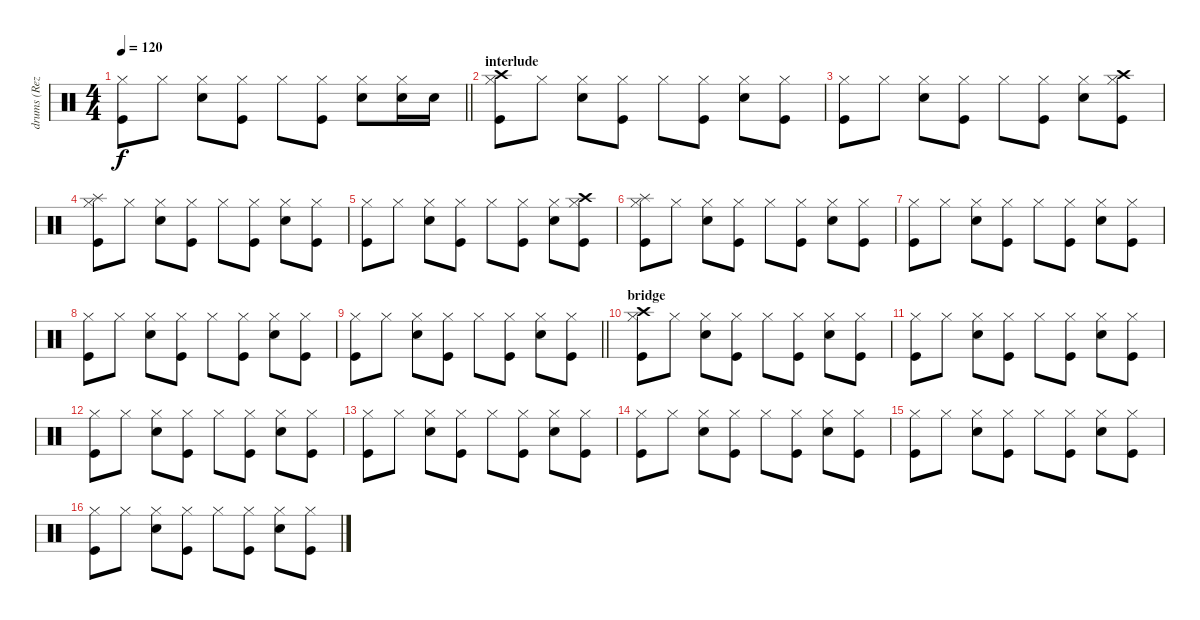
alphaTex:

\track ("drums (Reza)" "drums (Rez") {instrument percussion}
\staff {score}
\articulation defaults
\ts (4 4)
\tempo 120
\clef neutral
\barLineRight lightlight
\ks c
("Hi-Hat (closed)" "Kick (hit)").8{dy f} "Hi-Hat (closed)".8 ("Hi-Hat (closed)" "Snare (hit) 2").8 ("Hi-Hat (closed)" "Kick (hit)").8 "Hi-Hat (closed)".8 ("Hi-Hat (closed)" "Kick (hit)").8 ("Hi-Hat (closed)" "Snare (hit) 2").8 ("Hi-Hat (closed)" "Snare (hit) 2").16 "Snare (hit) 2".16 |
\section ("" "interlude")
("Hi-Hat (closed)" "Kick (hit)" "Crash high (hit)").8 "Hi-Hat (closed)".8 ("Hi-Hat (closed)" "Snare (hit) 2").8 ("Hi-Hat (closed)" "Kick (hit)").8 "Hi-Hat (closed)".8 ("Hi-Hat (closed)" "Kick (hit)").8 ("Hi-Hat (closed)" "Snare (hit) 2").8 ("Hi-Hat (closed)" "Kick (hit)").8 |
("Hi-Hat (closed)" "Kick (hit)").8 "Hi-Hat (closed)".8 ("Hi-Hat (closed)" "Snare (hit) 2").8 ("Hi-Hat (closed)" "Kick (hit)").8 "Hi-Hat (closed)".8 ("Hi-Hat (closed)" "Kick (hit)").8 ("Hi-Hat (closed)" "Snare (hit) 2").8 ("Hi-Hat (closed)" "Kick (hit)" "Crash high (hit)").8 |
("Hi-Hat (closed)" "Kick (hit)" "Splash (hit)").8 "Hi-Hat (closed)".8 ("Hi-Hat (closed)" "Snare (hit) 2").8 ("Hi-Hat (closed)" "Kick (hit)").8 "Hi-Hat (closed)".8 ("Hi-Hat (closed)" "Kick (hit)").8 ("Hi-Hat (closed)" "Snare (hit) 2").8 ("Hi-Hat (closed)" "Kick (hit)").8 |
("Hi-Hat (closed)" "Kick (hit)").8 "Hi-Hat (closed)".8 ("Hi-Hat (closed)" "Snare (hit) 2").8 ("Hi-Hat (closed)" "Kick (hit)").8 "Hi-Hat (closed)".8 ("Hi-Hat (closed)" "Kick (hit)").8 ("Hi-Hat (closed)" "Snare (hit) 2").8 ("Hi-Hat (closed)" "Kick (hit)" "Crash high (hit)").8 |
("Hi-Hat (closed)" "Kick (hit)" "Splash (hit)").8 "Hi-Hat (closed)".8 ("Hi-Hat (closed)" "Snare (hit) 2").8 ("Hi-Hat (closed)" "Kick (hit)").8 "Hi-Hat (closed)".8 ("Hi-Hat (closed)" "Kick (hit)").8 ("Hi-Hat (closed)" "Snare (hit) 2").8 ("Hi-Hat (closed)" "Kick (hit)").8 |
("Hi-Hat (closed)" "Kick (hit)").8 "Hi-Hat (closed)".8 ("Hi-Hat (closed)" "Snare (hit) 2").8 ("Hi-Hat (closed)" "Kick (hit)").8 "Hi-Hat (closed)".8 ("Hi-Hat (closed)" "Kick (hit)").8 ("Hi-Hat (closed)" "Snare (hit) 2").8 ("Hi-Hat (closed)" "Kick (hit)").8 |
("Hi-Hat (closed)" "Kick (hit)").8 "Hi-Hat (closed)".8 ("Hi-Hat (closed)" "Snare (hit) 2").8 ("Hi-Hat (closed)" "Kick (hit)").8 "Hi-Hat (closed)".8 ("Hi-Hat (closed)" "Kick (hit)").8 ("Hi-Hat (closed)" "Snare (hit) 2").8 ("Hi-Hat (closed)" "Kick (hit)").8 |
\barLineRight lightlight
("Hi-Hat (closed)" "Kick (hit)").8 "Hi-Hat (closed)".8 ("Hi-Hat (closed)" "Snare (hit) 2").8 ("Hi-Hat (closed)" "Kick (hit)").8 "Hi-Hat (closed)".8 ("Hi-Hat (closed)" "Kick (hit)").8 ("Hi-Hat (closed)" "Snare (hit) 2").8 ("Hi-Hat (closed)" "Kick (hit)").8 |
\section ("" "bridge")
("Hi-Hat (closed)" "Kick (hit)" "Crash high (hit)").8 "Hi-Hat (closed)".8 ("Hi-Hat (closed)" "Snare (hit) 2").8 ("Hi-Hat (closed)" "Kick (hit)").8 "Hi-Hat (closed)".8 ("Hi-Hat (closed)" "Kick (hit)").8 ("Hi-Hat (closed)" "Snare (hit) 2").8 ("Hi-Hat (closed)" "Kick (hit)").8 |
("Hi-Hat (closed)" "Kick (hit)").8 "Hi-Hat (closed)".8 ("Hi-Hat (closed)" "Snare (hit) 2").8 ("Hi-Hat (closed)" "Kick (hit)").8 "Hi-Hat (closed)".8 ("Hi-Hat (closed)" "Kick (hit)").8 ("Hi-Hat (closed)" "Snare (hit) 2").8 ("Hi-Hat (closed)" "Kick (hit)").8 |
("Hi-Hat (closed)" "Kick (hit)").8 "Hi-Hat (closed)".8 ("Hi-Hat (closed)" "Snare (hit) 2").8 ("Hi-Hat (closed)" "Kick (hit)").8 "Hi-Hat (closed)".8 ("Hi-Hat (closed)" "Kick (hit)").8 ("Hi-Hat (closed)" "Snare (hit) 2").8 ("Hi-Hat (closed)" "Kick (hit)").8 |
("Hi-Hat (closed)" "Kick (hit)").8 "Hi-Hat (closed)".8 ("Hi-Hat (closed)" "Snare (hit) 2").8 ("Hi-Hat (closed)" "Kick (hit)").8 "Hi-Hat (closed)".8 ("Hi-Hat (closed)" "Kick (hit)").8 ("Hi-Hat (closed)" "Snare (hit) 2").8 ("Hi-Hat (closed)" "Kick (hit)").8 |
("Hi-Hat (closed)" "Kick (hit)").8 "Hi-Hat (closed)".8 ("Hi-Hat (closed)" "Snare (hit) 2").8 ("Hi-Hat (closed)" "Kick (hit)").8 "Hi-Hat (closed)".8 ("Hi-Hat (closed)" "Kick (hit)").8 ("Hi-Hat (closed)" "Snare (hit) 2").8 ("Hi-Hat (closed)" "Kick (hit)").8 |
("Hi-Hat (closed)" "Kick (hit)").8 "Hi-Hat (closed)".8 ("Hi-Hat (closed)" "Snare (hit) 2").8 ("Hi-Hat (closed)" "Kick (hit)").8 "Hi-Hat (closed)".8 ("Hi-Hat (closed)" "Kick (hit)").8 ("Hi-Hat (closed)" "Snare (hit) 2").8 ("Hi-Hat (closed)" "Kick (hit)").8 |
("Hi-Hat (closed)" "Kick (hit)").8 "Hi-Hat (closed)".8 ("Hi-Hat (closed)" "Snare (hit) 2").8 ("Hi-Hat (closed)" "Kick (hit)").8 "Hi-Hat (closed)".8 ("Hi-Hat (closed)" "Kick (hit)").8 ("Hi-Hat (closed)" "Snare (hit) 2").8 ("Hi-Hat (closed)" "Kick (hit)").8
